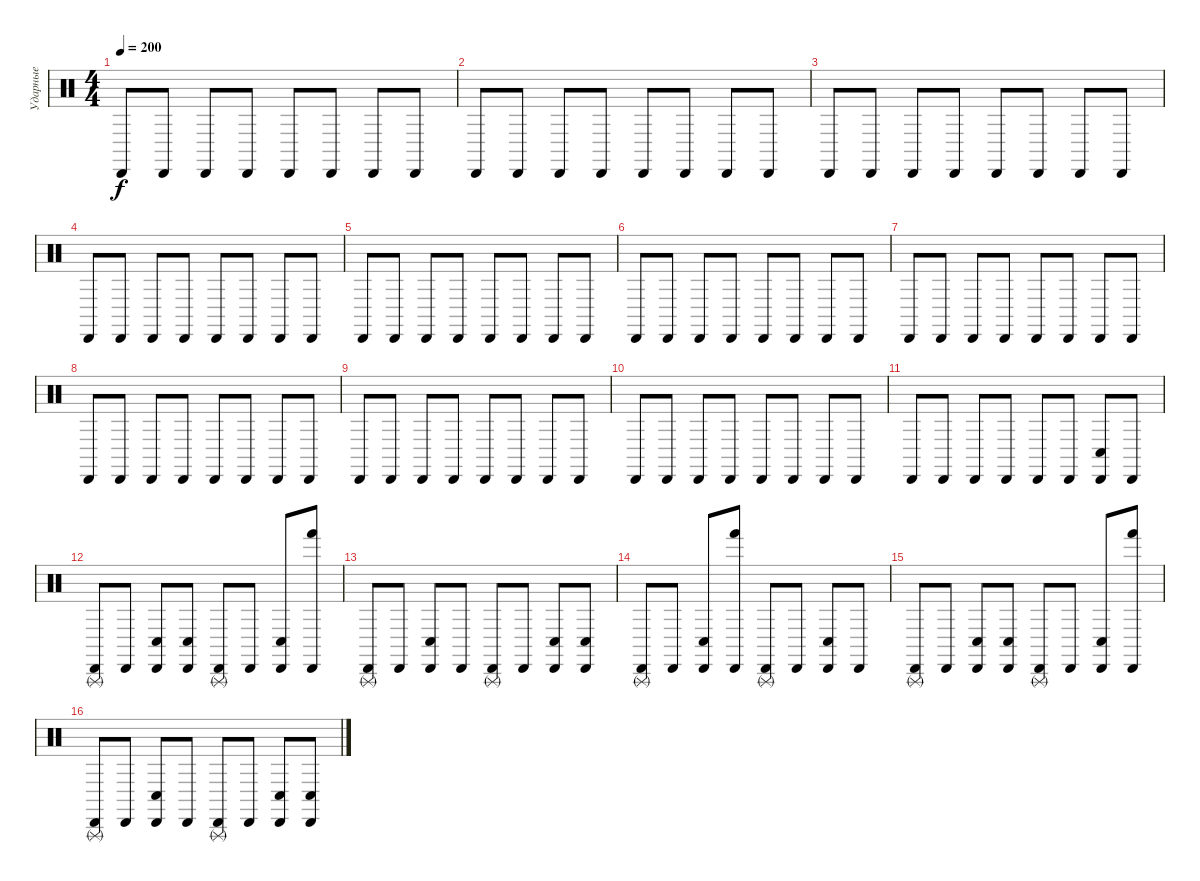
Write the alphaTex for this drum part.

\track ("Ударные" "Ударные") {instrument percussion}
\staff {score}
\articulation defaults
\ts (4 4)
\tempo 200
\clef neutral
\ks c "Cabasa (hit)".8{dy f} "Cabasa (hit)".8 "Cabasa (hit)".8 "Cabasa (hit)".8 "Cabasa (hit)".8 "Cabasa (hit)".8 "Cabasa (hit)".8 "Cabasa (hit)".8
|
"Cabasa (hit)".8 "Cabasa (hit)".8 "Cabasa (hit)".8 "Cabasa (hit)".8 "Cabasa (hit)".8 "Cabasa (hit)".8 "Cabasa (hit)".8 "Cabasa (hit)".8 |
"Cabasa (hit)".8 "Cabasa (hit)".8 "Cabasa (hit)".8 "Cabasa (hit)".8 "Cabasa (hit)".8 "Cabasa (hit)".8 "Cabasa (hit)".8 "Cabasa (hit)".8 |
"Cabasa (hit)".8 "Cabasa (hit)".8 "Cabasa (hit)".8 "Cabasa (hit)".8 "Cabasa (hit)".8 "Cabasa (hit)".8 "Cabasa (hit)".8 "Cabasa (hit)".8 |
"Cabasa (hit)".8 "Cabasa (hit)".8 "Cabasa (hit)".8 "Cabasa (hit)".8 "Cabasa (hit)".8 "Cabasa (hit)".8 "Cabasa (hit)".8 "Cabasa (hit)".8 |
"Cabasa (hit)".8 "Cabasa (hit)".8 "Cabasa (hit)".8 "Cabasa (hit)".8 "Cabasa (hit)".8 "Cabasa (hit)".8 "Cabasa (hit)".8 "Cabasa (hit)".8 |
"Cabasa (hit)".8 "Cabasa (hit)".8 "Cabasa (hit)".8 "Cabasa (hit)".8 "Cabasa (hit)".8 "Cabasa (hit)".8 "Cabasa (hit)".8 "Cabasa (hit)".8 |
"Cabasa (hit)".8 "Cabasa (hit)".8 "Cabasa (hit)".8 "Cabasa (hit)".8 "Cabasa (hit)".8 "Cabasa (hit)".8 "Cabasa (hit)".8 "Cabasa (hit)".8 |
"Cabasa (hit)".8 "Cabasa (hit)".8 "Cabasa (hit)".8 "Cabasa (hit)".8 "Cabasa (hit)".8 "Cabasa (hit)".8 "Cabasa (hit)".8 "Cabasa (hit)".8 |
"Cabasa (hit)".8 "Cabasa (hit)".8 "Cabasa (hit)".8 "Cabasa (hit)".8 "Cabasa (hit)".8 "Cabasa (hit)".8 "Cabasa (hit)".8 "Cabasa (hit)".8 |
"Cabasa (hit)".8 "Cabasa (hit)".8 "Cabasa (hit)".8 "Cabasa (hit)".8 "Cabasa (hit)".8 "Cabasa (hit)".8 ("Cabasa (hit)" "Conga low (hit)").8 "Cabasa (hit)".8 |
("Cabasa (hit)" "Triangle (rnute)").8 "Cabasa (hit)".8 ("Cabasa (hit)" "Conga low (hit)").8 ("Cabasa (hit)" "Conga low (hit)").8 ("Cabasa (hit)" "Triangle (rnute)").8 "Cabasa (hit)".8 ("Cabasa (hit)" "Conga low (hit)").8 ("Cabasa (hit)" "Hand (hit)").8 |
("Cabasa (hit)" "Triangle (rnute)").8 "Cabasa (hit)".8 ("Cabasa (hit)" "Conga low (hit)").8 "Cabasa (hit)".8 ("Cabasa (hit)" "Triangle (rnute)").8 "Cabasa (hit)".8 ("Cabasa (hit)" "Conga low (hit)").8 ("Cabasa (hit)" "Conga low (hit)").8 |
("Cabasa (hit)" "Triangle (rnute)").8 "Cabasa (hit)".8 ("Cabasa (hit)" "Conga low (hit)").8 ("Cabasa (hit)" "Hand (hit)").8 ("Cabasa (hit)" "Triangle (rnute)").8 "Cabasa (hit)".8 ("Cabasa (hit)" "Conga low (hit)").8 "Cabasa (hit)".8 |
("Cabasa (hit)" "Triangle (rnute)").8 "Cabasa (hit)".8 ("Cabasa (hit)" "Conga low (hit)").8 ("Cabasa (hit)" "Conga low (hit)").8 ("Cabasa (hit)" "Triangle (rnute)").8 "Cabasa (hit)".8 ("Cabasa (hit)" "Conga low (hit)").8 ("Cabasa (hit)" "Hand (hit)").8 |
("Cabasa (hit)" "Triangle (rnute)").8 "Cabasa (hit)".8 ("Cabasa (hit)" "Conga low (hit)").8 "Cabasa (hit)".8 ("Cabasa (hit)" "Triangle (rnute)").8 "Cabasa (hit)".8 ("Cabasa (hit)" "Conga low (hit)").8 ("Cabasa (hit)" "Conga low (hit)").8
